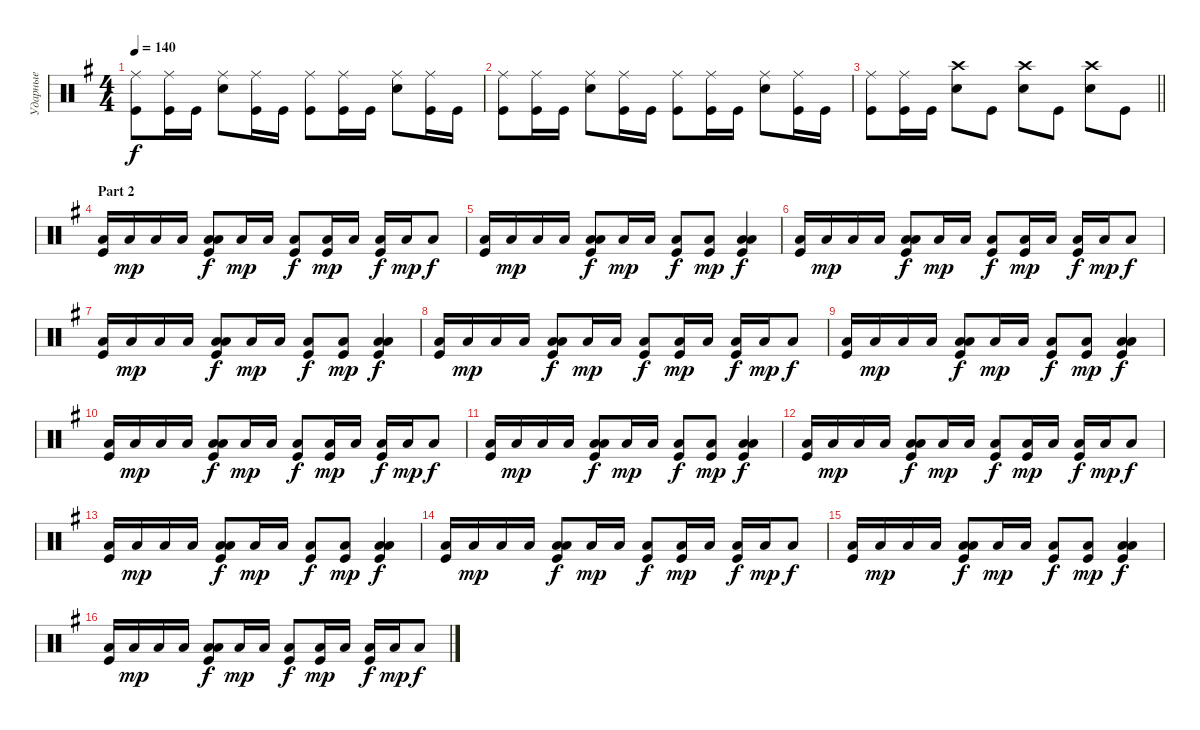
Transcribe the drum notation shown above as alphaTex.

\track ("Ударные" "Ударные") {instrument percussion}
\staff {score}
\articulation defaults
\ts (4 4)
\tempo 140
\clef neutral
\ks eminor
("Kick (hit)" "Ride (middle)").8{dy f} ("Kick (hit)" "Ride (middle)").16 "Kick (hit)".16 ("Snare (hit) 2" "Ride (middle)").8 ("Kick (hit)" "Ride (middle)").16 "Kick (hit)".16 ("Kick (hit)" "Ride (middle)").8 ("Kick (hit)" "Ride (middle)").16 "Kick (hit)".16 ("Snare (hit) 2" "Ride (middle)").8 ("Kick (hit)" "Ride (middle)").16 "Kick (hit)".16 |
("Kick (hit)" "Ride (middle)").8 ("Kick (hit)" "Ride (middle)").16 "Kick (hit)".16 ("Snare (hit) 2" "Ride (middle)").8 ("Kick (hit)" "Ride (middle)").16 "Kick (hit)".16 ("Kick (hit)" "Ride (middle)").8 ("Kick (hit)" "Ride (middle)").16 "Kick (hit)".16 ("Snare (hit) 2" "Ride (middle)").8 ("Kick (hit)" "Ride (middle)").16 "Kick (hit)".16 |
\barLineRight lightlight
("Kick (hit)" "Ride (middle)").8 ("Kick (hit)" "Ride (middle)").16 "Kick (hit)".16 ("Snare (hit) 2" "Crash high (hit)").8 "Kick (hit)".8 ("Snare (hit) 2" "Crash high (hit)").8 "Kick (hit)".8 ("Snare (hit) 2" "Crash high (hit)").8 "Kick (hit)".8 |
\section ("" "Part 2")
("Low Tom (hit)" "Kick (hit)").16 "Low Tom (hit)".16{dy mp} "Low Tom (hit)".16 "Low Tom (hit)".16 ("Low Tom (hit)" "Low Tom (hit)" "Kick (hit)").8{bd 120 dy f} "Low Tom (hit)".16{dy mp} "Low Tom (hit)".16 ("Kick (hit)" "Low Tom (hit)").8{dy f} ("Low Tom (hit)" "Kick (hit)").16{dy mp} "Low Tom (hit)".16 ("Low Tom (hit)" "Kick (hit)").16{bd 120 dy f} "Low Tom (hit)".16{dy mp} "Low Tom (hit)".8{dy f} |
("Low Tom (hit)" "Kick (hit)").16 "Low Tom (hit)".16{dy mp} "Low Tom (hit)".16 "Low Tom (hit)".16 ("Low Tom (hit)" "Low Tom (hit)" "Kick (hit)").8{bd 120 dy f} "Low Tom (hit)".16{dy mp} "Low Tom (hit)".16 ("Kick (hit)" "Low Tom (hit)").8{dy f} ("Low Tom (hit)" "Kick (hit)").8{dy mp} ("Low Tom (hit)" "Low Tom (hit)" "Kick (hit)").4{bd 120 dy f} |
("Low Tom (hit)" "Kick (hit)").16 "Low Tom (hit)".16{dy mp} "Low Tom (hit)".16 "Low Tom (hit)".16 ("Low Tom (hit)" "Low Tom (hit)" "Kick (hit)").8{bd 120 dy f} "Low Tom (hit)".16{dy mp} "Low Tom (hit)".16 ("Kick (hit)" "Low Tom (hit)").8{dy f} ("Low Tom (hit)" "Kick (hit)").16{dy mp} "Low Tom (hit)".16 ("Low Tom (hit)" "Kick (hit)").16{bd 120 dy f} "Low Tom (hit)".16{dy mp} "Low Tom (hit)".8{dy f} |
("Low Tom (hit)" "Kick (hit)").16 "Low Tom (hit)".16{dy mp} "Low Tom (hit)".16 "Low Tom (hit)".16 ("Low Tom (hit)" "Low Tom (hit)" "Kick (hit)").8{bd 120 dy f} "Low Tom (hit)".16{dy mp} "Low Tom (hit)".16 ("Kick (hit)" "Low Tom (hit)").8{dy f} ("Low Tom (hit)" "Kick (hit)").8{dy mp} ("Low Tom (hit)" "Low Tom (hit)" "Kick (hit)").4{bd 120 dy f} |
("Low Tom (hit)" "Kick (hit)").16 "Low Tom (hit)".16{dy mp} "Low Tom (hit)".16 "Low Tom (hit)".16 ("Low Tom (hit)" "Low Tom (hit)" "Kick (hit)").8{bd 120 dy f} "Low Tom (hit)".16{dy mp} "Low Tom (hit)".16 ("Kick (hit)" "Low Tom (hit)").8{dy f} ("Low Tom (hit)" "Kick (hit)").16{dy mp} "Low Tom (hit)".16 ("Low Tom (hit)" "Kick (hit)").16{bd 120 dy f} "Low Tom (hit)".16{dy mp} "Low Tom (hit)".8{dy f} |
("Low Tom (hit)" "Kick (hit)").16 "Low Tom (hit)".16{dy mp} "Low Tom (hit)".16 "Low Tom (hit)".16 ("Low Tom (hit)" "Low Tom (hit)" "Kick (hit)").8{bd 120 dy f} "Low Tom (hit)".16{dy mp} "Low Tom (hit)".16 ("Kick (hit)" "Low Tom (hit)").8{dy f} ("Low Tom (hit)" "Kick (hit)").8{dy mp} ("Low Tom (hit)" "Low Tom (hit)" "Kick (hit)").4{bd 120 dy f} |
("Low Tom (hit)" "Kick (hit)").16 "Low Tom (hit)".16{dy mp} "Low Tom (hit)".16 "Low Tom (hit)".16 ("Low Tom (hit)" "Low Tom (hit)" "Kick (hit)").8{bd 120 dy f} "Low Tom (hit)".16{dy mp} "Low Tom (hit)".16 ("Kick (hit)" "Low Tom (hit)").8{dy f} ("Low Tom (hit)" "Kick (hit)").16{dy mp} "Low Tom (hit)".16 ("Low Tom (hit)" "Kick (hit)").16{bd 120 dy f} "Low Tom (hit)".16{dy mp} "Low Tom (hit)".8{dy f} |
("Low Tom (hit)" "Kick (hit)").16 "Low Tom (hit)".16{dy mp} "Low Tom (hit)".16 "Low Tom (hit)".16 ("Low Tom (hit)" "Low Tom (hit)" "Kick (hit)").8{bd 120 dy f} "Low Tom (hit)".16{dy mp} "Low Tom (hit)".16 ("Kick (hit)" "Low Tom (hit)").8{dy f} ("Low Tom (hit)" "Kick (hit)").8{dy mp} ("Low Tom (hit)" "Low Tom (hit)" "Kick (hit)").4{bd 120 dy f} |
("Low Tom (hit)" "Kick (hit)").16 "Low Tom (hit)".16{dy mp} "Low Tom (hit)".16 "Low Tom (hit)".16 ("Low Tom (hit)" "Low Tom (hit)" "Kick (hit)").8{bd 120 dy f} "Low Tom (hit)".16{dy mp} "Low Tom (hit)".16 ("Kick (hit)" "Low Tom (hit)").8{dy f} ("Low Tom (hit)" "Kick (hit)").16{dy mp} "Low Tom (hit)".16 ("Low Tom (hit)" "Kick (hit)").16{bd 120 dy f} "Low Tom (hit)".16{dy mp} "Low Tom (hit)".8{dy f} |
("Low Tom (hit)" "Kick (hit)").16 "Low Tom (hit)".16{dy mp} "Low Tom (hit)".16 "Low Tom (hit)".16 ("Low Tom (hit)" "Low Tom (hit)" "Kick (hit)").8{bd 120 dy f} "Low Tom (hit)".16{dy mp} "Low Tom (hit)".16 ("Kick (hit)" "Low Tom (hit)").8{dy f} ("Low Tom (hit)" "Kick (hit)").8{dy mp} ("Low Tom (hit)" "Low Tom (hit)" "Kick (hit)").4{bd 120 dy f} |
("Low Tom (hit)" "Kick (hit)").16 "Low Tom (hit)".16{dy mp} "Low Tom (hit)".16 "Low Tom (hit)".16 ("Low Tom (hit)" "Low Tom (hit)" "Kick (hit)").8{bd 120 dy f} "Low Tom (hit)".16{dy mp} "Low Tom (hit)".16 ("Kick (hit)" "Low Tom (hit)").8{dy f} ("Low Tom (hit)" "Kick (hit)").16{dy mp} "Low Tom (hit)".16 ("Low Tom (hit)" "Kick (hit)").16{bd 120 dy f} "Low Tom (hit)".16{dy mp} "Low Tom (hit)".8{dy f} |
("Low Tom (hit)" "Kick (hit)").16 "Low Tom (hit)".16{dy mp} "Low Tom (hit)".16 "Low Tom (hit)".16 ("Low Tom (hit)" "Low Tom (hit)" "Kick (hit)").8{bd 120 dy f} "Low Tom (hit)".16{dy mp} "Low Tom (hit)".16 ("Kick (hit)" "Low Tom (hit)").8{dy f} ("Low Tom (hit)" "Kick (hit)").8{dy mp} ("Low Tom (hit)" "Low Tom (hit)" "Kick (hit)").4{bd 120 dy f} |
("Low Tom (hit)" "Kick (hit)").16 "Low Tom (hit)".16{dy mp} "Low Tom (hit)".16 "Low Tom (hit)".16 ("Low Tom (hit)" "Low Tom (hit)" "Kick (hit)").8{bd 120 dy f} "Low Tom (hit)".16{dy mp} "Low Tom (hit)".16 ("Kick (hit)" "Low Tom (hit)").8{dy f} ("Low Tom (hit)" "Kick (hit)").16{dy mp} "Low Tom (hit)".16 ("Low Tom (hit)" "Kick (hit)").16{bd 120 dy f} "Low Tom (hit)".16{dy mp} "Low Tom (hit)".8{dy f}
